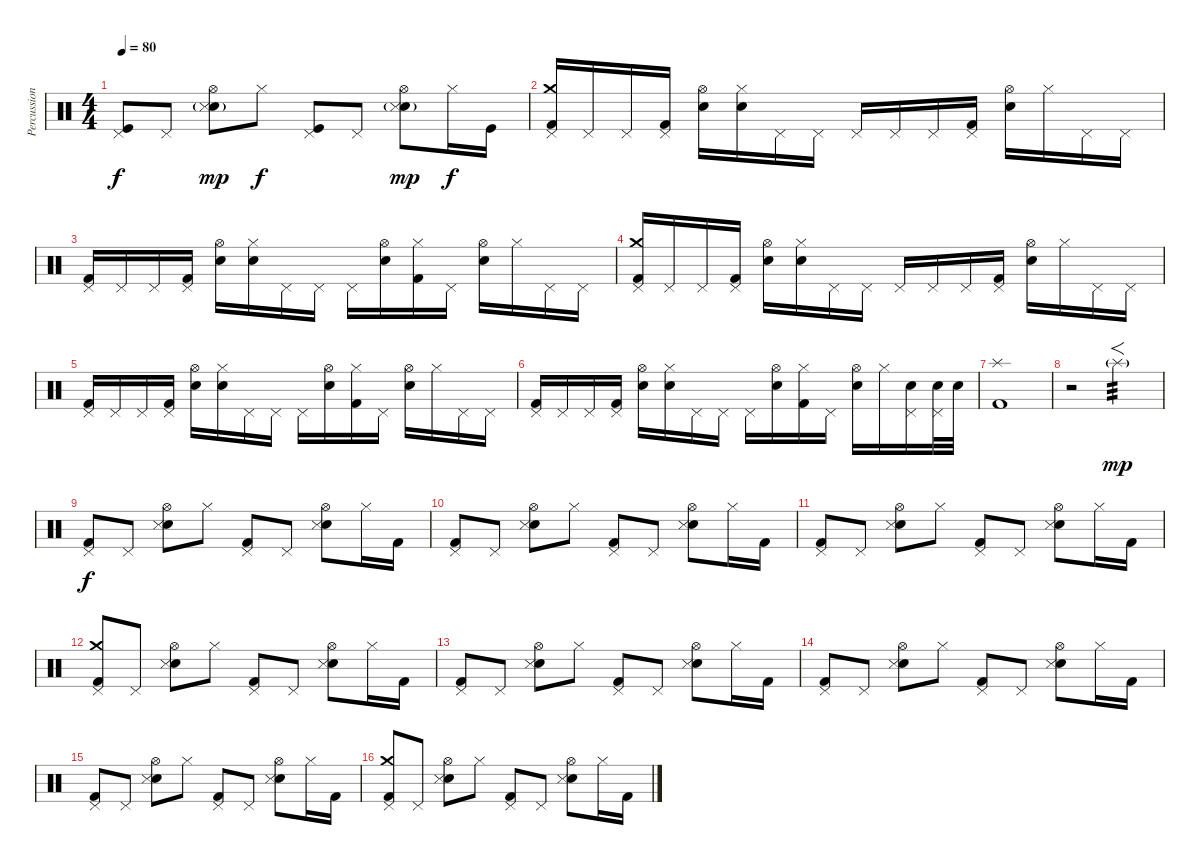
\track ("Percussions" "Percussion") {instrument percussion}
\staff {score}
\articulation defaults
\ts (4 4)
\tempo 80
\clef neutral
\ks c
("Pedal Hi-Hat (hit)" "Kick (hit)").8{dy f} "Pedal Hi-Hat (hit)".8 ("Hi-Hat (open)" "Electric Snare (hit)"{g} "Snare (side stick) 3").8{dy mp} "Hi-Hat (closed)".8{dy f} ("Pedal Hi-Hat (hit)" "Kick (hit)").8 "Pedal Hi-Hat (hit)".8 ("Hi-Hat (open)" "Electric Snare (hit)"{g} "Snare (side stick) 3").8{dy mp} "Hi-Hat (closed)".16{dy f} "Kick (hit)".16 |
("Pedal Hi-Hat (hit)" "Crash medium (hit)" "Kick (hit) 2").16 "Pedal Hi-Hat (hit)".16 "Pedal Hi-Hat (hit)".16 ("Pedal Hi-Hat (hit)" "Kick (hit) 2").16 ("Hi-Hat (open)" "Electric Snare (hit)").16 ("Hi-Hat (closed)" "Electric Snare (hit)").16 "Pedal Hi-Hat (hit)".16 "Pedal Hi-Hat (hit)".16 "Pedal Hi-Hat (hit)".16 "Pedal Hi-Hat (hit)".16 "Pedal Hi-Hat (hit)".16 ("Pedal Hi-Hat (hit)" "Kick (hit) 2").16 ("Hi-Hat (open)" "Electric Snare (hit)").16 "Hi-Hat (closed)".16 "Pedal Hi-Hat (hit)".16 "Pedal Hi-Hat (hit)".16 |
("Pedal Hi-Hat (hit)" "Kick (hit) 2").16 "Pedal Hi-Hat (hit)".16 "Pedal Hi-Hat (hit)".16 ("Pedal Hi-Hat (hit)" "Kick (hit) 2").16 ("Hi-Hat (open)" "Electric Snare (hit)").16 ("Hi-Hat (closed)" "Electric Snare (hit)").16 "Pedal Hi-Hat (hit)".16 "Pedal Hi-Hat (hit)".16 "Pedal Hi-Hat (hit)".16 ("Hi-Hat (open)" "Electric Snare (hit)").16 ("Hi-Hat (closed)" "Kick (hit) 2").16 "Pedal Hi-Hat (hit)".16 ("Hi-Hat (open)" "Electric Snare (hit)").16 "Hi-Hat (closed)".16 "Pedal Hi-Hat (hit)".16 "Pedal Hi-Hat (hit)".16 |
("Pedal Hi-Hat (hit)" "Crash medium (hit)" "Kick (hit) 2").16 "Pedal Hi-Hat (hit)".16 "Pedal Hi-Hat (hit)".16 ("Pedal Hi-Hat (hit)" "Kick (hit) 2").16 ("Hi-Hat (open)" "Electric Snare (hit)").16 ("Hi-Hat (closed)" "Electric Snare (hit)").16 "Pedal Hi-Hat (hit)".16 "Pedal Hi-Hat (hit)".16 "Pedal Hi-Hat (hit)".16 "Pedal Hi-Hat (hit)".16 "Pedal Hi-Hat (hit)".16 ("Pedal Hi-Hat (hit)" "Kick (hit) 2").16 ("Hi-Hat (open)" "Electric Snare (hit)").16 "Hi-Hat (closed)".16 "Pedal Hi-Hat (hit)".16 "Pedal Hi-Hat (hit)".16 |
("Pedal Hi-Hat (hit)" "Kick (hit) 2").16 "Pedal Hi-Hat (hit)".16 "Pedal Hi-Hat (hit)".16 ("Pedal Hi-Hat (hit)" "Kick (hit) 2").16 ("Hi-Hat (open)" "Electric Snare (hit)").16 ("Hi-Hat (closed)" "Electric Snare (hit)").16 "Pedal Hi-Hat (hit)".16 "Pedal Hi-Hat (hit)".16 "Pedal Hi-Hat (hit)".16 ("Hi-Hat (open)" "Electric Snare (hit)").16 ("Hi-Hat (closed)" "Kick (hit) 2").16 "Pedal Hi-Hat (hit)".16 ("Hi-Hat (open)" "Electric Snare (hit)").16 "Hi-Hat (closed)".16 "Pedal Hi-Hat (hit)".16 "Pedal Hi-Hat (hit)".16 |
("Pedal Hi-Hat (hit)" "Kick (hit) 2").16 "Pedal Hi-Hat (hit)".16 "Pedal Hi-Hat (hit)".16 ("Pedal Hi-Hat (hit)" "Kick (hit) 2").16 ("Hi-Hat (open)" "Electric Snare (hit)").16 ("Hi-Hat (closed)" "Electric Snare (hit)").16 "Pedal Hi-Hat (hit)".16 "Pedal Hi-Hat (hit)".16 "Pedal Hi-Hat (hit)".16 ("Hi-Hat (open)" "Electric Snare (hit)").16 ("Hi-Hat (closed)" "Kick (hit) 2").16 "Pedal Hi-Hat (hit)".16 ("Hi-Hat (open)" "Electric Snare (hit)").16 "Hi-Hat (closed)".16 ("Pedal Hi-Hat (hit)" "Electric Snare (hit)").16 ("Pedal Hi-Hat (hit)" "Electric Snare (hit)").32 "Electric Snare (hit)".32 |
("Splash (hit)" "Kick (hit) 2").1 |
r.2 "Splash (hit)"{g}.2{f tp 3 dy mp} |
("Pedal Hi-Hat (hit)" "Kick (hit) 2").8{dy f} "Pedal Hi-Hat (hit)".8 ("Hi-Hat (open)" "Electric Snare (hit)" "Snare (side stick) 3").8 "Hi-Hat (closed)".8 ("Pedal Hi-Hat (hit)" "Kick (hit) 2").8 "Pedal Hi-Hat (hit)".8 ("Hi-Hat (open)" "Electric Snare (hit)" "Snare (side stick) 3").8 "Hi-Hat (closed)".16 "Kick (hit) 2".16 |
("Pedal Hi-Hat (hit)" "Kick (hit) 2").8 "Pedal Hi-Hat (hit)".8 ("Hi-Hat (open)" "Electric Snare (hit)" "Snare (side stick) 3").8 "Hi-Hat (closed)".8 ("Pedal Hi-Hat (hit)" "Kick (hit) 2").8 "Pedal Hi-Hat (hit)".8 ("Hi-Hat (open)" "Electric Snare (hit)" "Snare (side stick) 3").8 "Hi-Hat (closed)".16 "Kick (hit) 2".16 |
("Pedal Hi-Hat (hit)" "Kick (hit) 2").8 "Pedal Hi-Hat (hit)".8 ("Hi-Hat (open)" "Electric Snare (hit)" "Snare (side stick) 3").8 "Hi-Hat (closed)".8 ("Pedal Hi-Hat (hit)" "Kick (hit) 2").8 "Pedal Hi-Hat (hit)".8 ("Hi-Hat (open)" "Electric Snare (hit)" "Snare (side stick) 3").8 "Hi-Hat (closed)".16 "Kick (hit) 2".16 |
("Pedal Hi-Hat (hit)" "Crash medium (hit)" "Kick (hit) 2").8 "Pedal Hi-Hat (hit)".8 ("Hi-Hat (open)" "Electric Snare (hit)" "Snare (side stick) 3").8 "Hi-Hat (closed)".8 ("Pedal Hi-Hat (hit)" "Kick (hit) 2").8 "Pedal Hi-Hat (hit)".8 ("Hi-Hat (open)" "Electric Snare (hit)" "Snare (side stick) 3").8 "Hi-Hat (closed)".16 "Kick (hit) 2".16 |
("Pedal Hi-Hat (hit)" "Kick (hit) 2").8 "Pedal Hi-Hat (hit)".8 ("Hi-Hat (open)" "Electric Snare (hit)" "Snare (side stick) 3").8 "Hi-Hat (closed)".8 ("Pedal Hi-Hat (hit)" "Kick (hit) 2").8 "Pedal Hi-Hat (hit)".8 ("Hi-Hat (open)" "Electric Snare (hit)" "Snare (side stick) 3").8 "Hi-Hat (closed)".16 "Kick (hit) 2".16 |
("Pedal Hi-Hat (hit)" "Kick (hit) 2").8 "Pedal Hi-Hat (hit)".8 ("Hi-Hat (open)" "Electric Snare (hit)" "Snare (side stick) 3").8 "Hi-Hat (closed)".8 ("Pedal Hi-Hat (hit)" "Kick (hit) 2").8 "Pedal Hi-Hat (hit)".8 ("Hi-Hat (open)" "Electric Snare (hit)" "Snare (side stick) 3").8 "Hi-Hat (closed)".16 "Kick (hit) 2".16 |
("Pedal Hi-Hat (hit)" "Kick (hit) 2").8 "Pedal Hi-Hat (hit)".8 ("Hi-Hat (open)" "Electric Snare (hit)" "Snare (side stick) 3").8 "Hi-Hat (closed)".8 ("Pedal Hi-Hat (hit)" "Kick (hit) 2").8 "Pedal Hi-Hat (hit)".8 ("Hi-Hat (open)" "Electric Snare (hit)" "Snare (side stick) 3").8 "Hi-Hat (closed)".16 "Kick (hit) 2".16 |
("Pedal Hi-Hat (hit)" "Crash medium (hit)" "Kick (hit) 2").8 "Pedal Hi-Hat (hit)".8 ("Hi-Hat (open)" "Electric Snare (hit)" "Snare (side stick) 3").8 "Hi-Hat (closed)".8 ("Pedal Hi-Hat (hit)" "Kick (hit) 2").8 "Pedal Hi-Hat (hit)".8 ("Hi-Hat (open)" "Electric Snare (hit)" "Snare (side stick) 3").8 "Hi-Hat (closed)".16 "Kick (hit) 2".16
